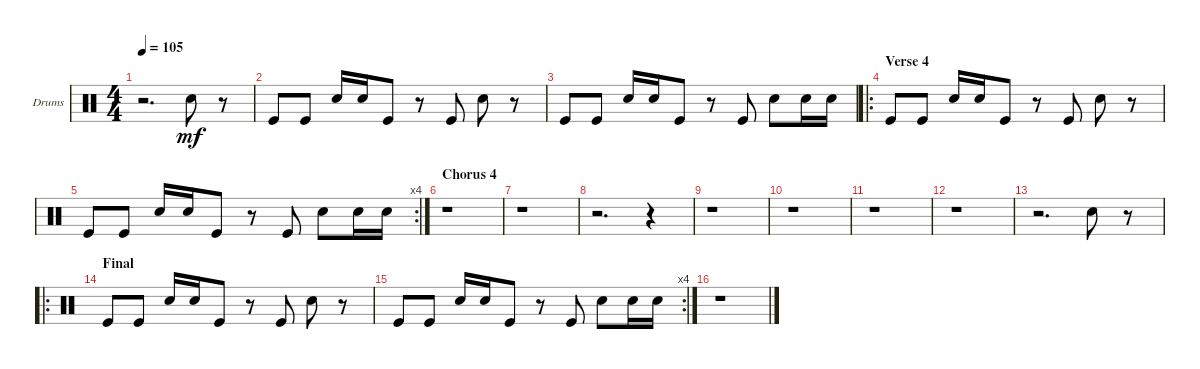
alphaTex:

\defaultSystemsLayout 4
\bracketExtendMode groupsimilarinstruments
\firstSystemTrackNameOrientation horizontal
\otherSystemsTrackNameOrientation horizontal
\chordDiagramsInScore
\track ("Drumkit" "Drums") {instrument percussion}
\staff {score}
\articulation defaults
\ts (4 4)
\tempo 105
\clef neutral
\ks c
r.2{d dy mf} "Snare (hit) 2".8 r.8 |
"Kick (hit)".8 "Kick (hit)".8 "Snare (hit) 2".16 "Snare (hit) 2".16 "Kick (hit)".8 r.8 "Kick (hit)".8 "Snare (hit) 2".8 r.8 |
"Kick (hit)".8 "Kick (hit)".8 "Snare (hit) 2".16 "Snare (hit) 2".16 "Kick (hit)".8 r.8 "Kick (hit)".8 "Snare (hit) 2".8 "Snare (hit) 2".16 "Snare (hit) 2".16 |
\ro
\section ("" "Verse 4")
"Kick (hit)".8 "Kick (hit)".8 "Snare (hit) 2".16 "Snare (hit) 2".16 "Kick (hit)".8 r.8 "Kick (hit)".8 "Snare (hit) 2".8 r.8 |
\rc 4 "Kick (hit)".8 "Kick (hit)".8 "Snare (hit) 2".16 "Snare (hit) 2".16 "Kick (hit)".8
r.8 "Kick (hit)".8 "Snare (hit) 2".8 "Snare (hit) 2".16 "Snare (hit) 2".16 |
\section ("" "Chorus 4")
r.1 |
r.1 |
r.2{d} r.4 |
r.1 |
r.1 |
r.1 |
r.1 |
r.2{d} "Snare (hit) 2".8 r.8 |
\ro
\section ("" "Final")
"Kick (hit)".8 "Kick (hit)".8 "Snare (hit) 2".16 "Snare (hit) 2".16 "Kick (hit)".8 r.8 "Kick (hit)".8 "Snare (hit) 2".8 r.8 |
\rc 4 "Kick (hit)".8 "Kick (hit)".8 "Snare (hit) 2".16 "Snare (hit) 2".16 "Kick (hit)".8
r.8 "Kick (hit)".8 "Snare (hit) 2".8 "Snare (hit) 2".16 "Snare (hit) 2".16 |
r.1
